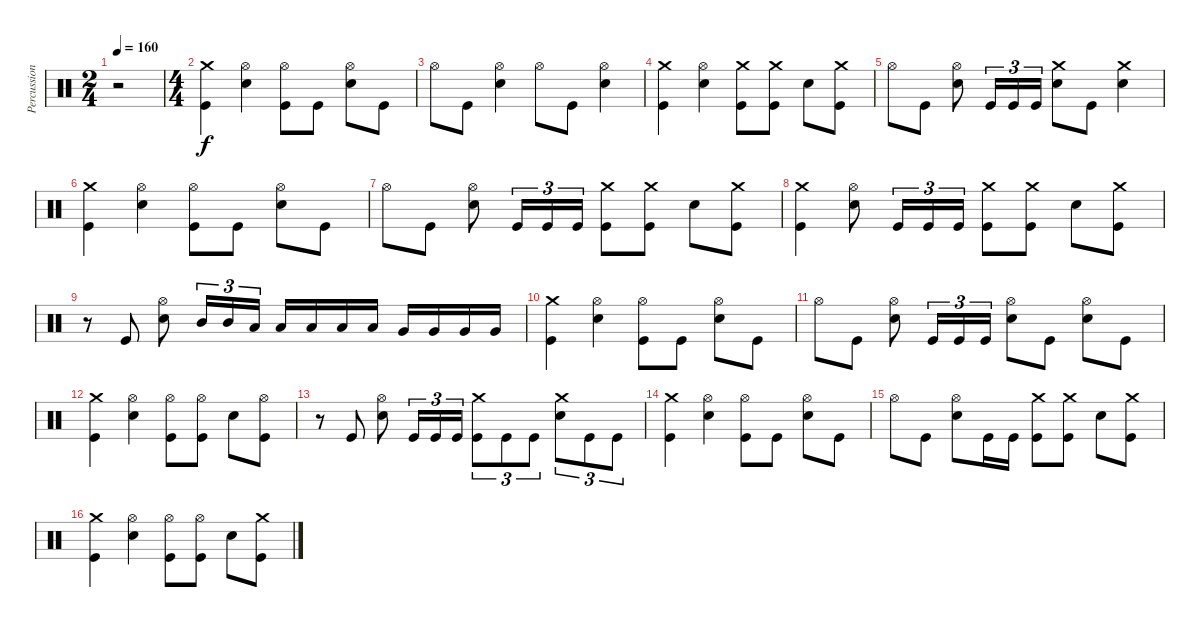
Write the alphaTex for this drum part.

\track ("Percussions" "Percussion") {instrument percussion}
\staff {score}
\articulation defaults
\ts (2 4)
\tempo 160
\clef neutral
\ks c
r.2{dy f} |
\ts (4 4)
("Kick (hit)" "Crash medium (hit)").4 ("Electric Snare (hit)" "Hi-Hat (open)").4 ("Kick (hit)" "Hi-Hat (open)").8 "Kick (hit)".8 ("Electric Snare (hit)" "Hi-Hat (open)").8 "Kick (hit)".8 |
"Hi-Hat (open)".8 "Kick (hit)".8 ("Electric Snare (hit)" "Hi-Hat (open)").4 "Hi-Hat (open)".8 "Kick (hit)".8 ("Electric Snare (hit)" "Hi-Hat (open)").4 |
("Kick (hit)" "Crash medium (hit)").4 ("Electric Snare (hit)" "Hi-Hat (open)").4 ("Kick (hit)" "Crash medium (hit)").8 ("Kick (hit)" "Crash medium (hit)").8 "Electric Snare (hit)".8 ("Kick (hit)" "Crash medium (hit)").8 |
"Hi-Hat (open)".8 "Kick (hit)".8 ("Electric Snare (hit)" "Hi-Hat (open)").8 "Kick (hit)".16{tu (3 2)} "Kick (hit)".16{tu (3 2)} "Kick (hit)".16{tu (3 2)} ("Electric Snare (hit)" "Crash medium (hit)").8 "Kick (hit)".8 ("Electric Snare (hit)" "Crash medium (hit)").4 |
("Kick (hit)" "Crash medium (hit)").4 ("Electric Snare (hit)" "Hi-Hat (open)").4 ("Kick (hit)" "Hi-Hat (open)").8 "Kick (hit)".8 ("Electric Snare (hit)" "Hi-Hat (open)").8 "Kick (hit)".8 |
"Hi-Hat (open)".8 "Kick (hit)".8 ("Electric Snare (hit)" "Hi-Hat (open)").8 "Kick (hit)".16{tu (3 2)} "Kick (hit)".16{tu (3 2)} "Kick (hit)".16{tu (3 2)} ("Kick (hit)" "Crash medium (hit)").8 ("Kick (hit)" "Crash medium (hit)").8 "Electric Snare (hit)".8 ("Kick (hit)" "Crash medium (hit)").8 |
("Kick (hit)" "Crash medium (hit)").4 ("Electric Snare (hit)" "Hi-Hat (open)").8 "Kick (hit)".16{tu (3 2)} "Kick (hit)".16{tu (3 2)} "Kick (hit)".16{tu (3 2)} ("Kick (hit)" "Crash medium (hit)").8 ("Kick (hit)" "Crash medium (hit)").8 "Electric Snare (hit)".8 ("Kick (hit)" "Crash medium (hit)").8 |
r.8 "Kick (hit)".8 ("Electric Snare (hit)" "Hi-Hat (open)").8 "Mid Tom (hit)".16{tu (3 2)} "Mid Tom (hit)".16{tu (3 2)} "Low Tom (hit)".16{tu (3 2)} "Low Tom (hit)".16 "Low Tom (hit)".16 "Low Tom (hit)".16 "Low Tom (hit)".16 "Very Low Tom (hit)".16 "Very Low Tom (hit)".16 "Very Low Tom (hit)".16 "Very Low Tom (hit)".16 |
("Kick (hit)" "Crash medium (hit)").4 ("Electric Snare (hit)" "Hi-Hat (open)").4 ("Kick (hit)" "Hi-Hat (open)").8 "Kick (hit)".8 ("Electric Snare (hit)" "Hi-Hat (open)").8 "Kick (hit)".8 |
"Hi-Hat (open)".8 "Kick (hit)".8 ("Electric Snare (hit)" "Hi-Hat (open)").8 "Kick (hit)".16{tu (3 2)} "Kick (hit)".16{tu (3 2)} "Kick (hit)".16{tu (3 2)} ("Electric Snare (hit)" "Hi-Hat (open)").8 "Kick (hit)".8 ("Electric Snare (hit)" "Hi-Hat (open)").8 "Kick (hit)".8 |
("Kick (hit)" "Crash medium (hit)").4 ("Electric Snare (hit)" "Hi-Hat (open)").4 ("Kick (hit)" "Hi-Hat (open)").8 ("Kick (hit)" "Hi-Hat (open)").8 "Electric Snare (hit)".8 ("Kick (hit)" "Hi-Hat (open)").8 |
r.8 "Kick (hit)".8 ("Electric Snare (hit)" "Hi-Hat (open)").8 "Kick (hit)".16{tu (3 2)} "Kick (hit)".16{tu (3 2)} "Kick (hit)".16{tu (3 2)} ("Kick (hit)" "Crash medium (hit)").8{tu (3 2)} "Kick (hit)".8{tu (3 2)} "Kick (hit)".8{tu (3 2)} ("Electric Snare (hit)" "Crash medium (hit)").8{tu (3 2)} "Kick (hit)".8{tu (3 2)} "Kick (hit)".8{tu (3 2)} |
("Kick (hit)" "Crash medium (hit)").4 ("Electric Snare (hit)" "Hi-Hat (open)").4 ("Kick (hit)" "Hi-Hat (open)").8 "Kick (hit)".8 ("Electric Snare (hit)" "Hi-Hat (open)").8 "Kick (hit)".8 |
"Hi-Hat (open)".8 "Kick (hit)".8 ("Electric Snare (hit)" "Hi-Hat (open)").8 "Kick (hit)".16 "Kick (hit)".16 ("Kick (hit)" "Crash medium (hit)").8 ("Kick (hit)" "Crash medium (hit)").8 "Electric Snare (hit)".8 ("Kick (hit)" "Crash medium (hit)").8 |
("Kick (hit)" "Crash medium (hit)").4 ("Electric Snare (hit)" "Hi-Hat (open)").4 ("Kick (hit)" "Hi-Hat (open)").8 ("Kick (hit)" "Hi-Hat (open)").8 "Electric Snare (hit)".8 ("Kick (hit)" "Crash medium (hit)").8
